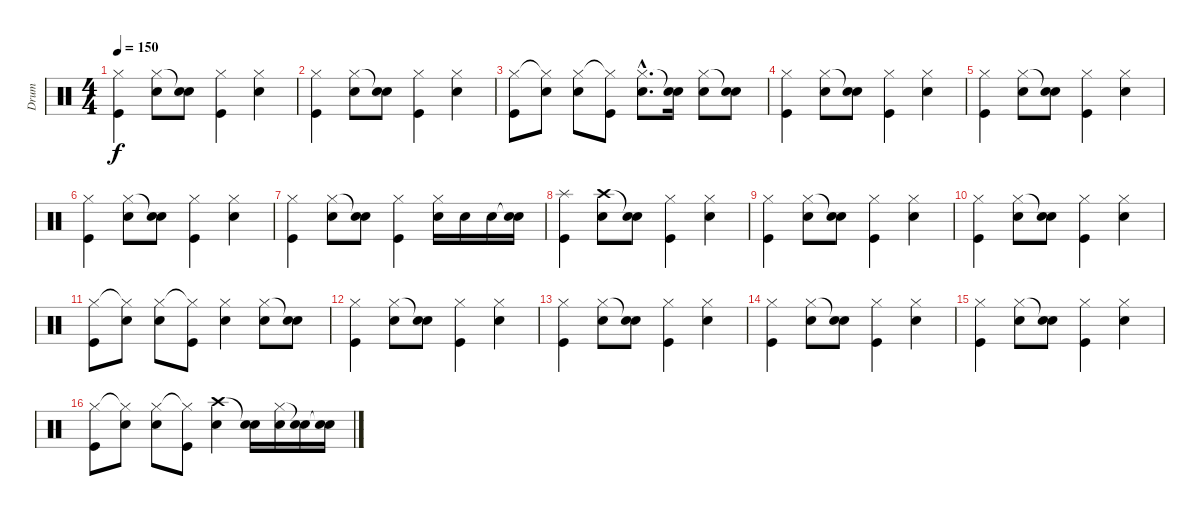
\track ("Drum" "Drum") {instrument percussion}
\staff {score}
\articulation defaults
\ts (4 4)
\tempo 150
\clef neutral
\ks c
("Hi-Hat (closed)" "Kick (hit)").4{dy f} ("Hi-Hat (closed)" "Snare (hit) 2").8 ("Snare (hit)"{t} "Snare (hit) 2").8 ("Hi-Hat (closed)" "Kick (hit)").4 ("Hi-Hat (closed)" "Snare (hit) 2").4 |
("Hi-Hat (closed)" "Kick (hit)").4 ("Hi-Hat (closed)" "Snare (hit) 2").8 ("Snare (hit)"{t} "Snare (hit) 2").8 ("Hi-Hat (closed)" "Kick (hit)").4 ("Hi-Hat (closed)" "Snare (hit) 2").4 |
("Hi-Hat (closed)" "Kick (hit)").8 ("Hi-Hat (closed)"{t} "Snare (hit) 2").8 ("Hi-Hat (closed)" "Snare (hit) 2").8 ("Hi-Hat (closed)"{t} "Kick (hit)").8 ("Hi-Hat (closed)"{hac} "Snare (hit) 2"{hac}).8{d} ("Snare (hit)"{t} "Snare (hit) 2").16 ("Hi-Hat (closed)" "Snare (hit) 2").8 ("Snare (hit)"{t} "Snare (hit) 2").8 |
("Hi-Hat (closed)" "Kick (hit)").4 ("Hi-Hat (closed)" "Snare (hit) 2").8 ("Snare (hit)"{t} "Snare (hit) 2").8 ("Hi-Hat (closed)" "Kick (hit)").4 ("Hi-Hat (closed)" "Snare (hit) 2").4 |
("Hi-Hat (closed)" "Kick (hit)").4 ("Hi-Hat (closed)" "Snare (hit) 2").8 ("Snare (hit)"{t} "Snare (hit) 2").8 ("Hi-Hat (closed)" "Kick (hit)").4 ("Hi-Hat (closed)" "Snare (hit) 2").4 |
("Hi-Hat (closed)" "Kick (hit)").4 ("Hi-Hat (closed)" "Snare (hit) 2").8 ("Snare (hit)"{t} "Snare (hit) 2").8 ("Hi-Hat (closed)" "Kick (hit)").4 ("Hi-Hat (closed)" "Snare (hit) 2").4 |
("Hi-Hat (closed)" "Kick (hit)").4 ("Hi-Hat (closed)" "Snare (hit) 2").8 ("Snare (hit)"{t} "Snare (hit) 2").8 ("Hi-Hat (closed)" "Kick (hit)").4 ("Hi-Hat (closed)" "Snare (hit) 2").16 "Snare (hit) 2".16 "Snare (hit) 2".16 ("Snare (hit)"{t} "Snare (hit) 2").16 |
("Splash (hit)" "Kick (hit)").4 ("Crash high (hit)" "Snare (hit) 2").8 ("Snare (hit)"{t} "Snare (hit) 2").8 ("Hi-Hat (closed)" "Kick (hit)").4 ("Hi-Hat (closed)" "Snare (hit) 2").4 |
("Hi-Hat (closed)" "Kick (hit)").4 ("Hi-Hat (closed)" "Snare (hit) 2").8 ("Snare (hit)"{t} "Snare (hit) 2").8 ("Hi-Hat (closed)" "Kick (hit)").4 ("Hi-Hat (closed)" "Snare (hit) 2").4 |
("Hi-Hat (closed)" "Kick (hit)").4 ("Hi-Hat (closed)" "Snare (hit) 2").8 ("Snare (hit)"{t} "Snare (hit) 2").8 ("Hi-Hat (closed)" "Kick (hit)").4 ("Hi-Hat (closed)" "Snare (hit) 2").4 |
("Hi-Hat (closed)" "Kick (hit)").8 ("Hi-Hat (closed)"{t} "Snare (hit) 2").8 ("Hi-Hat (closed)" "Snare (hit) 2").8 ("Hi-Hat (closed)"{t} "Kick (hit)").8 ("Hi-Hat (closed)" "Snare (hit) 2").4 ("Hi-Hat (closed)" "Snare (hit) 2").8 ("Snare (hit)"{t} "Snare (hit) 2").8 |
("Hi-Hat (closed)" "Kick (hit)").4 ("Hi-Hat (closed)" "Snare (hit) 2").8 ("Snare (hit)"{t} "Snare (hit) 2").8 ("Hi-Hat (closed)" "Kick (hit)").4 ("Hi-Hat (closed)" "Snare (hit) 2").4 |
("Hi-Hat (closed)" "Kick (hit)").4 ("Hi-Hat (closed)" "Snare (hit) 2").8 ("Snare (hit)"{t} "Snare (hit) 2").8 ("Hi-Hat (closed)" "Kick (hit)").4 ("Hi-Hat (closed)" "Snare (hit) 2").4 |
("Hi-Hat (closed)" "Kick (hit)").4 ("Hi-Hat (closed)" "Snare (hit) 2").8 ("Snare (hit)"{t} "Snare (hit) 2").8 ("Hi-Hat (closed)" "Kick (hit)").4 ("Hi-Hat (closed)" "Snare (hit) 2").4 |
("Hi-Hat (closed)" "Kick (hit)").4 ("Hi-Hat (closed)" "Snare (hit) 2").8 ("Snare (hit)"{t} "Snare (hit) 2").8 ("Hi-Hat (closed)" "Kick (hit)").4 ("Hi-Hat (closed)" "Snare (hit) 2").4 |
("Hi-Hat (closed)" "Kick (hit)").8 ("Hi-Hat (closed)"{t} "Snare (hit) 2").8 ("Hi-Hat (closed)" "Snare (hit) 2").8 ("Hi-Hat (closed)"{t} "Kick (hit)").8 ("Crash high (hit)" "Snare (hit) 2").4 ("Snare (hit)"{t} "Snare (hit) 2").16 ("Hi-Hat (closed)" "Snare (hit) 2").16 ("Snare (hit)"{t} "Snare (hit) 2").16 ("Snare (hit)"{t} "Snare (hit) 2").16
